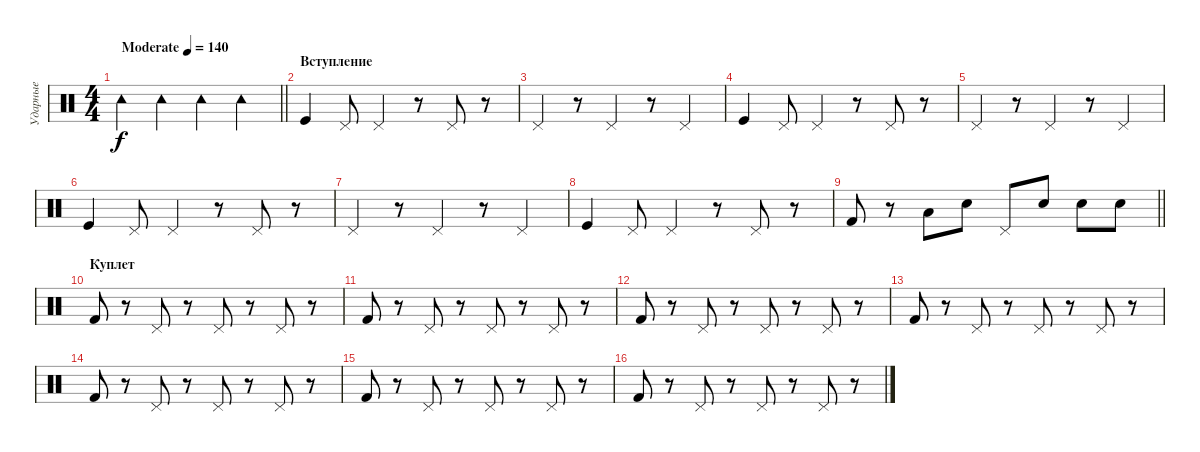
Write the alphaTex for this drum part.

\track ("Ударные" "Ударные") {instrument percussion}
\staff {score}
\articulation defaults
\ts (4 4)
\tempo (140 "Moderate")
\clef neutral
\barLineRight lightlight
\ks c "Tambourine (hit)".4{dy f} "Tambourine (hit)".4 "Tambourine (hit)".4 "Tambourine (hit)".4
|
\section ("" "Вступление")
"Kick (hit)".4 "Pedal Hi-Hat (hit)".8 "Pedal Hi-Hat (hit)".4 r.8 "Pedal Hi-Hat (hit)".8 r.8 |
"Pedal Hi-Hat (hit)".4 r.8 "Pedal Hi-Hat (hit)".4 r.8 "Pedal Hi-Hat (hit)".4 |
"Kick (hit)".4 "Pedal Hi-Hat (hit)".8 "Pedal Hi-Hat (hit)".4 r.8 "Pedal Hi-Hat (hit)".8 r.8 |
"Pedal Hi-Hat (hit)".4 r.8 "Pedal Hi-Hat (hit)".4 r.8 "Pedal Hi-Hat (hit)".4 |
"Kick (hit)".4 "Pedal Hi-Hat (hit)".8 "Pedal Hi-Hat (hit)".4 r.8 "Pedal Hi-Hat (hit)".8 r.8 |
"Pedal Hi-Hat (hit)".4 r.8 "Pedal Hi-Hat (hit)".4 r.8 "Pedal Hi-Hat (hit)".4 |
"Kick (hit)".4 "Pedal Hi-Hat (hit)".8 "Pedal Hi-Hat (hit)".4 r.8 "Pedal Hi-Hat (hit)".8 r.8 |
\barLineRight lightlight "Kick (hit) 2".8
r.8 "Low Tom (hit)".8 "Electric Snare (hit)".8 "Pedal Hi-Hat (hit)".8 "Snare (hit) 2".8 "Snare (hit) 2".8 "Snare (hit) 2".8 |
\section ("" "Куплет")
"Kick (hit) 2".8 r.8 "Pedal Hi-Hat (hit)".8 r.8 "Pedal Hi-Hat (hit)".8 r.8 "Pedal Hi-Hat (hit)".8 r.8 |
"Kick (hit) 2".8 r.8 "Pedal Hi-Hat (hit)".8 r.8 "Pedal Hi-Hat (hit)".8 r.8 "Pedal Hi-Hat (hit)".8 r.8 |
"Kick (hit) 2".8 r.8 "Pedal Hi-Hat (hit)".8 r.8 "Pedal Hi-Hat (hit)".8 r.8 "Pedal Hi-Hat (hit)".8 r.8 |
"Kick (hit) 2".8 r.8 "Pedal Hi-Hat (hit)".8 r.8 "Pedal Hi-Hat (hit)".8 r.8 "Pedal Hi-Hat (hit)".8 r.8 |
"Kick (hit) 2".8 r.8 "Pedal Hi-Hat (hit)".8 r.8 "Pedal Hi-Hat (hit)".8 r.8 "Pedal Hi-Hat (hit)".8 r.8 |
"Kick (hit) 2".8 r.8 "Pedal Hi-Hat (hit)".8 r.8 "Pedal Hi-Hat (hit)".8 r.8 "Pedal Hi-Hat (hit)".8 r.8 |
"Kick (hit) 2".8 r.8 "Pedal Hi-Hat (hit)".8 r.8 "Pedal Hi-Hat (hit)".8 r.8 "Pedal Hi-Hat (hit)".8 r.8
